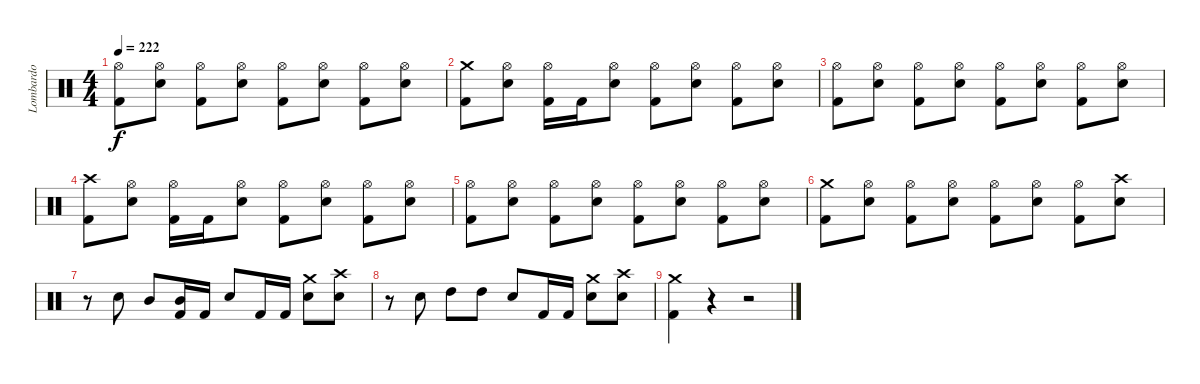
\track ("Lombardo" "Lombardo") {instrument percussion}
\staff {score}
\articulation defaults
\ts (4 4)
\tempo 222
\clef neutral
\ks c
("Hi-Hat (open)" "Kick (hit) 2").8{dy f} ("Hi-Hat (open)" "Snare (hit) 2").8 ("Hi-Hat (open)" "Kick (hit) 2").8 ("Hi-Hat (open)" "Snare (hit) 2").8 ("Hi-Hat (open)" "Kick (hit) 2").8 ("Hi-Hat (open)" "Snare (hit) 2").8 ("Hi-Hat (open)" "Kick (hit) 2").8 ("Hi-Hat (open)" "Snare (hit) 2").8 |
("Crash medium (hit)" "Kick (hit) 2").8 ("Hi-Hat (open)" "Snare (hit) 2").8 ("Hi-Hat (open)" "Kick (hit) 2").16 "Kick (hit) 2".16 ("Hi-Hat (open)" "Snare (hit) 2").8 ("Hi-Hat (open)" "Kick (hit) 2").8 ("Hi-Hat (open)" "Snare (hit) 2").8 ("Hi-Hat (open)" "Kick (hit) 2").8 ("Hi-Hat (open)" "Snare (hit) 2").8 |
("Hi-Hat (open)" "Kick (hit) 2").8 ("Hi-Hat (open)" "Snare (hit) 2").8 ("Hi-Hat (open)" "Kick (hit) 2").8 ("Hi-Hat (open)" "Snare (hit) 2").8 ("Hi-Hat (open)" "Kick (hit) 2").8 ("Hi-Hat (open)" "Snare (hit) 2").8 ("Hi-Hat (open)" "Kick (hit) 2").8 ("Hi-Hat (open)" "Snare (hit) 2").8 |
("Crash high (hit)" "Kick (hit) 2").8 ("Hi-Hat (open)" "Snare (hit) 2").8 ("Hi-Hat (open)" "Kick (hit) 2").16 "Kick (hit) 2".16 ("Hi-Hat (open)" "Snare (hit) 2").8 ("Hi-Hat (open)" "Kick (hit) 2").8 ("Hi-Hat (open)" "Snare (hit) 2").8 ("Hi-Hat (open)" "Kick (hit) 2").8 ("Hi-Hat (open)" "Snare (hit) 2").8 |
("Hi-Hat (open)" "Kick (hit) 2").8 ("Hi-Hat (open)" "Snare (hit) 2").8 ("Hi-Hat (open)" "Kick (hit) 2").8 ("Hi-Hat (open)" "Snare (hit) 2").8 ("Hi-Hat (open)" "Kick (hit) 2").8 ("Hi-Hat (open)" "Snare (hit) 2").8 ("Hi-Hat (open)" "Kick (hit) 2").8 ("Hi-Hat (open)" "Snare (hit) 2").8 |
("Crash medium (hit)" "Kick (hit) 2").8 ("Hi-Hat (open)" "Snare (hit) 2").8 ("Hi-Hat (open)" "Kick (hit) 2").8 ("Hi-Hat (open)" "Snare (hit) 2").8 ("Hi-Hat (open)" "Kick (hit) 2").8 ("Hi-Hat (open)" "Snare (hit) 2").8 ("Hi-Hat (open)" "Kick (hit) 2").8 ("Crash high (hit)" "Snare (hit) 2").8 |
r.8 "Snare (hit) 2".8 "Mid Tom (hit)".8 ("Mid Tom (hit)" "Kick (hit) 2").16 "Kick (hit) 2".16 "Snare (hit) 2".8 "Kick (hit) 2".16 "Kick (hit) 2".16 ("Crash medium (hit)" "Snare (hit) 2").8 ("Crash high (hit)" "Snare (hit) 2").8 |
r.8 "Snare (hit) 2".8 "High Tom (hit)".8 "High Tom (hit)".8 "Snare (hit) 2".8 "Kick (hit) 2".16 "Kick (hit) 2".16 ("Crash medium (hit)" "Snare (hit) 2").8 ("Crash high (hit)" "Snare (hit) 2").8 |
("Crash medium (hit)" "Kick (hit) 2").4 r.4 r.2
